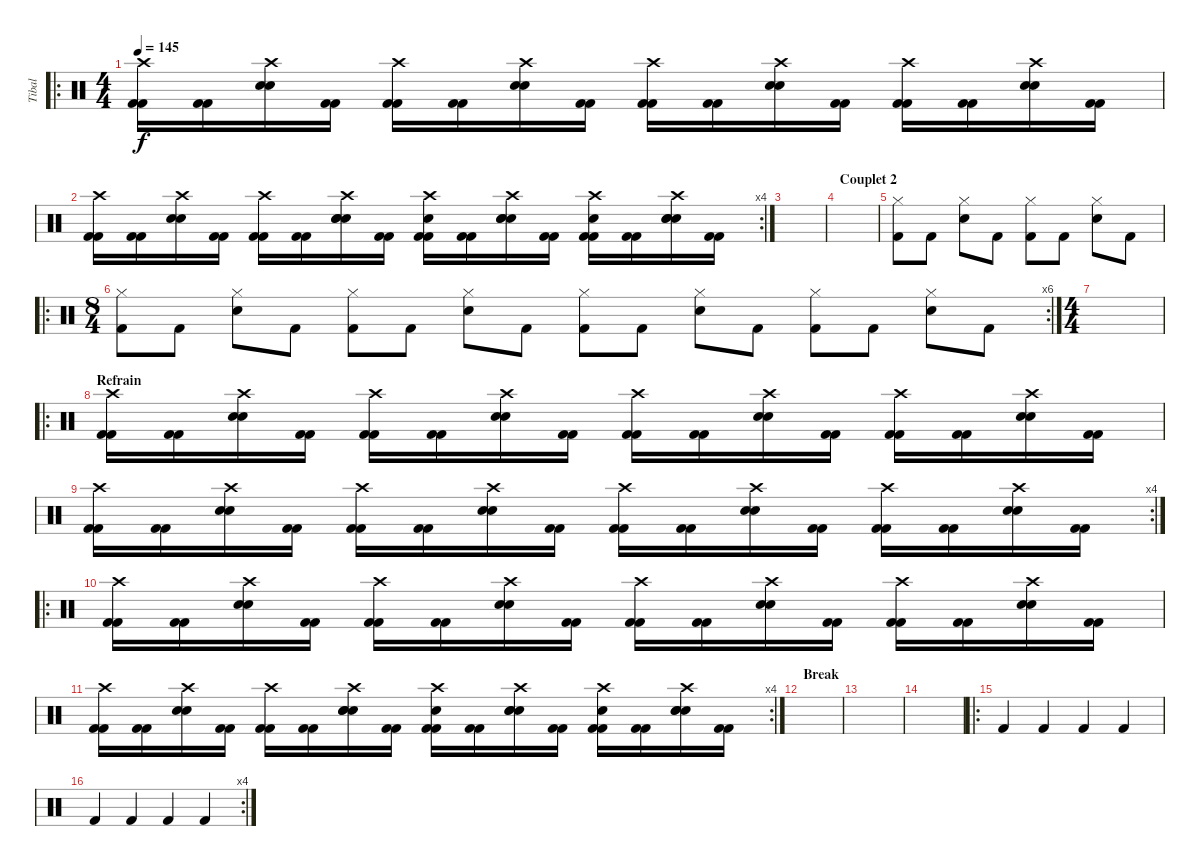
\track ("Tibal" "Tibal") {instrument percussion}
\staff {score}
\articulation defaults
\ro
\ts (4 4)
\tempo 145
\clef neutral
\ks c
("Crash high (hit)" "Kick (hit) 2" "Kick (hit) 2").16{dy f} ("Kick (hit) 2" "Kick (hit) 2").16 ("Crash high (hit)" "Snare (hit) 2" "Snare (hit) 2").16 ("Kick (hit) 2" "Kick (hit) 2").16 ("Crash high (hit)" "Kick (hit) 2" "Kick (hit) 2").16 ("Kick (hit) 2" "Kick (hit) 2").16 ("Crash high (hit)" "Snare (hit) 2" "Snare (hit) 2").16 ("Kick (hit) 2" "Kick (hit) 2").16 ("Crash high (hit)" "Kick (hit) 2" "Kick (hit) 2").16 ("Kick (hit) 2" "Kick (hit) 2").16 ("Crash high (hit)" "Snare (hit) 2" "Snare (hit) 2").16 ("Kick (hit) 2" "Kick (hit) 2").16 ("Crash high (hit)" "Kick (hit) 2" "Kick (hit) 2").16 ("Kick (hit) 2" "Kick (hit) 2").16 ("Crash high (hit)" "Snare (hit) 2" "Snare (hit) 2").16 ("Kick (hit) 2" "Kick (hit) 2").16 |
\rc 4
("Crash high (hit)" "Kick (hit) 2" "Kick (hit) 2").16 ("Kick (hit) 2" "Kick (hit) 2").16 ("Crash high (hit)" "Snare (hit) 2" "Snare (hit) 2").16 ("Kick (hit) 2" "Kick (hit) 2").16 ("Crash high (hit)" "Kick (hit) 2" "Kick (hit) 2").16 ("Kick (hit) 2" "Kick (hit) 2").16 ("Crash high (hit)" "Snare (hit) 2" "Snare (hit) 2" "Snare (hit) 2").16 ("Kick (hit) 2" "Kick (hit) 2").16 ("Crash high (hit)" "Kick (hit) 2" "Snare (hit) 2" "Kick (hit) 2").16 ("Kick (hit) 2" "Kick (hit) 2").16 ("Crash high (hit)" "Snare (hit) 2" "Snare (hit) 2" "Snare (hit) 2").16 ("Kick (hit) 2" "Kick (hit) 2").16 ("Crash high (hit)" "Kick (hit) 2" "Snare (hit) 2" "Kick (hit) 2").16 ("Kick (hit) 2" "Kick (hit) 2").16 ("Crash high (hit)" "Snare (hit) 2" "Snare (hit) 2" "Snare (hit) 2").16 ("Kick (hit) 2" "Kick (hit) 2").16 |
|
\section ("" "Couplet 2")
|
("Hi-Hat (closed)" "Kick (hit) 2").8 "Kick (hit) 2".8 ("Hi-Hat (closed)" "Snare (hit) 2").8 "Kick (hit) 2".8 ("Hi-Hat (closed)" "Kick (hit) 2").8 "Kick (hit) 2".8 ("Hi-Hat (closed)" "Snare (hit) 2").8 "Kick (hit) 2".8 |
\ro
\rc 6
\ts (8 4)
("Hi-Hat (closed)" "Kick (hit) 2").8 "Kick (hit) 2".8 ("Hi-Hat (closed)" "Snare (hit) 2").8 "Kick (hit) 2".8 ("Hi-Hat (closed)" "Kick (hit) 2").8 "Kick (hit) 2".8 ("Hi-Hat (closed)" "Snare (hit) 2").8 "Kick (hit) 2".8 ("Hi-Hat (closed)" "Kick (hit) 2").8 "Kick (hit) 2".8 ("Hi-Hat (closed)" "Snare (hit) 2").8 "Kick (hit) 2".8 ("Hi-Hat (closed)" "Kick (hit) 2").8 "Kick (hit) 2".8 ("Hi-Hat (closed)" "Snare (hit) 2").8 "Kick (hit) 2".8 |
\ts (4 4)
|
\ro
\section ("" "Refrain")
("Crash high (hit)" "Kick (hit) 2" "Kick (hit) 2").16 ("Kick (hit) 2" "Kick (hit) 2").16 ("Crash high (hit)" "Snare (hit) 2" "Snare (hit) 2").16 ("Kick (hit) 2" "Kick (hit) 2").16 ("Crash high (hit)" "Kick (hit) 2" "Kick (hit) 2").16 ("Kick (hit) 2" "Kick (hit) 2").16 ("Crash high (hit)" "Snare (hit) 2" "Snare (hit) 2").16 ("Kick (hit) 2" "Kick (hit) 2").16 ("Crash high (hit)" "Kick (hit) 2" "Kick (hit) 2").16 ("Kick (hit) 2" "Kick (hit) 2").16 ("Crash high (hit)" "Snare (hit) 2" "Snare (hit) 2").16 ("Kick (hit) 2" "Kick (hit) 2").16 ("Crash high (hit)" "Kick (hit) 2" "Kick (hit) 2").16 ("Kick (hit) 2" "Kick (hit) 2").16 ("Crash high (hit)" "Snare (hit) 2" "Snare (hit) 2").16 ("Kick (hit) 2" "Kick (hit) 2").16 |
\rc 4
("Crash high (hit)" "Kick (hit) 2" "Kick (hit) 2").16 ("Kick (hit) 2" "Kick (hit) 2").16 ("Crash high (hit)" "Snare (hit) 2" "Snare (hit) 2").16 ("Kick (hit) 2" "Kick (hit) 2").16 ("Crash high (hit)" "Kick (hit) 2" "Kick (hit) 2").16 ("Kick (hit) 2" "Kick (hit) 2").16 ("Crash high (hit)" "Snare (hit) 2" "Snare (hit) 2").16 ("Kick (hit) 2" "Kick (hit) 2").16 ("Crash high (hit)" "Kick (hit) 2" "Kick (hit) 2").16 ("Kick (hit) 2" "Kick (hit) 2").16 ("Crash high (hit)" "Snare (hit) 2" "Snare (hit) 2").16 ("Kick (hit) 2" "Kick (hit) 2").16 ("Crash high (hit)" "Kick (hit) 2" "Kick (hit) 2").16 ("Kick (hit) 2" "Kick (hit) 2").16 ("Crash high (hit)" "Snare (hit) 2" "Snare (hit) 2").16 ("Kick (hit) 2" "Kick (hit) 2").16 |
\ro
("Crash high (hit)" "Kick (hit) 2" "Kick (hit) 2").16 ("Kick (hit) 2" "Kick (hit) 2").16 ("Crash high (hit)" "Snare (hit) 2" "Snare (hit) 2").16 ("Kick (hit) 2" "Kick (hit) 2").16 ("Crash high (hit)" "Kick (hit) 2" "Kick (hit) 2").16 ("Kick (hit) 2" "Kick (hit) 2").16 ("Crash high (hit)" "Snare (hit) 2" "Snare (hit) 2").16 ("Kick (hit) 2" "Kick (hit) 2").16 ("Crash high (hit)" "Kick (hit) 2" "Kick (hit) 2").16 ("Kick (hit) 2" "Kick (hit) 2").16 ("Crash high (hit)" "Snare (hit) 2" "Snare (hit) 2").16 ("Kick (hit) 2" "Kick (hit) 2").16 ("Crash high (hit)" "Kick (hit) 2" "Kick (hit) 2").16 ("Kick (hit) 2" "Kick (hit) 2").16 ("Crash high (hit)" "Snare (hit) 2" "Snare (hit) 2").16 ("Kick (hit) 2" "Kick (hit) 2").16 |
\rc 4
("Crash high (hit)" "Kick (hit) 2" "Kick (hit) 2").16 ("Kick (hit) 2" "Kick (hit) 2").16 ("Crash high (hit)" "Snare (hit) 2" "Snare (hit) 2").16 ("Kick (hit) 2" "Kick (hit) 2").16 ("Crash high (hit)" "Kick (hit) 2" "Kick (hit) 2").16 ("Kick (hit) 2" "Kick (hit) 2").16 ("Crash high (hit)" "Snare (hit) 2" "Snare (hit) 2" "Snare (hit) 2").16 ("Kick (hit) 2" "Kick (hit) 2").16 ("Crash high (hit)" "Snare (hit) 2" "Kick (hit) 2" "Kick (hit) 2").16 ("Kick (hit) 2" "Kick (hit) 2").16 ("Crash high (hit)" "Snare (hit) 2" "Snare (hit) 2" "Snare (hit) 2").16 ("Kick (hit) 2" "Kick (hit) 2").16 ("Crash high (hit)" "Snare (hit) 2" "Kick (hit) 2" "Kick (hit) 2").16 ("Kick (hit) 2" "Kick (hit) 2").16 ("Crash high (hit)" "Snare (hit) 2" "Snare (hit) 2" "Snare (hit) 2").16 ("Kick (hit) 2" "Kick (hit) 2").16 |
\section ("" "Break")
|
|
|
\ro "Kick (hit) 2".4 "Kick (hit) 2".4 "Kick (hit) 2".4 "Kick (hit) 2".4
|
\rc 4 "Kick (hit) 2".4 "Kick (hit) 2".4 "Kick (hit) 2".4 "Kick (hit) 2".4
